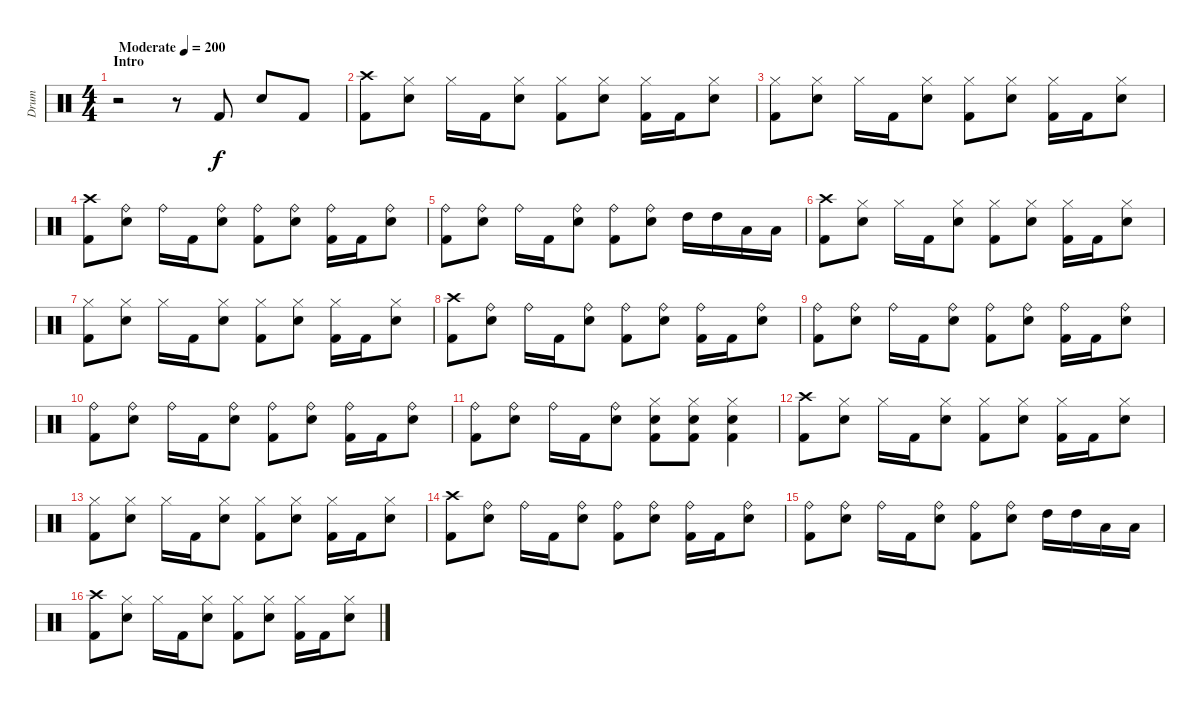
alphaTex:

\track ("Drum" "Drum") {instrument percussion}
\staff {score}
\articulation defaults
\ts (4 4)
\section ("" "Intro")
\tempo (200 "Moderate")
\clef neutral
\ks c
r.2{dy f} r.8 "Kick (hit) 2".8 "Snare (hit) 2".8 "Kick (hit) 2".8 |
("Crash high (hit)" "Kick (hit) 2").8 ("Hi-Hat (closed)" "Snare (hit) 2").8 "Hi-Hat (closed)".16 "Kick (hit) 2".16 ("Hi-Hat (closed)" "Snare (hit) 2").8 ("Hi-Hat (closed)" "Kick (hit) 2").8 ("Hi-Hat (closed)" "Snare (hit) 2").8 ("Hi-Hat (closed)" "Kick (hit) 2").16 "Kick (hit) 2".16 ("Hi-Hat (closed)" "Snare (hit) 2").8 |
("Hi-Hat (closed)" "Kick (hit) 2").8 ("Hi-Hat (closed)" "Snare (hit) 2").8 "Hi-Hat (closed)".16 "Kick (hit) 2".16 ("Hi-Hat (closed)" "Snare (hit) 2").8 ("Hi-Hat (closed)" "Kick (hit) 2").8 ("Hi-Hat (closed)" "Snare (hit) 2").8 ("Hi-Hat (closed)" "Kick (hit) 2").16 "Kick (hit) 2".16 ("Hi-Hat (closed)" "Snare (hit) 2").8 |
("Crash high (hit)" "Kick (hit) 2").8 ("Ride (bell)" "Snare (hit) 2").8 "Ride (bell)".16 "Kick (hit) 2".16 ("Ride (bell)" "Snare (hit) 2").8 ("Ride (bell)" "Kick (hit) 2").8 ("Ride (bell)" "Snare (hit) 2").8 ("Ride (bell)" "Kick (hit) 2").16 "Kick (hit) 2".16 ("Ride (bell)" "Snare (hit) 2").8 |
("Ride (bell)" "Kick (hit) 2").8 ("Ride (bell)" "Snare (hit) 2").8 "Ride (bell)".16 "Kick (hit) 2".16 ("Ride (bell)" "Snare (hit) 2").8 ("Ride (bell)" "Kick (hit) 2").8 ("Ride (bell)" "Snare (hit) 2").8 "High Tom (hit)".16 "High Tom (hit)".16 "Low Tom (hit)".16 "Low Tom (hit)".16 |
("Crash high (hit)" "Kick (hit) 2").8 ("Hi-Hat (closed)" "Snare (hit) 2").8 "Hi-Hat (closed)".16 "Kick (hit) 2".16 ("Hi-Hat (closed)" "Snare (hit) 2").8 ("Hi-Hat (closed)" "Kick (hit) 2").8 ("Hi-Hat (closed)" "Snare (hit) 2").8 ("Hi-Hat (closed)" "Kick (hit) 2").16 "Kick (hit) 2".16 ("Hi-Hat (closed)" "Snare (hit) 2").8 |
("Hi-Hat (closed)" "Kick (hit) 2").8 ("Hi-Hat (closed)" "Snare (hit) 2").8 "Hi-Hat (closed)".16 "Kick (hit) 2".16 ("Hi-Hat (closed)" "Snare (hit) 2").8 ("Hi-Hat (closed)" "Kick (hit) 2").8 ("Hi-Hat (closed)" "Snare (hit) 2").8 ("Hi-Hat (closed)" "Kick (hit) 2").16 "Kick (hit) 2".16 ("Hi-Hat (closed)" "Snare (hit) 2").8 |
("Crash high (hit)" "Kick (hit) 2").8 ("Ride (bell)" "Snare (hit) 2").8 "Ride (bell)".16 "Kick (hit) 2".16 ("Ride (bell)" "Snare (hit) 2").8 ("Ride (bell)" "Kick (hit) 2").8 ("Ride (bell)" "Snare (hit) 2").8 ("Ride (bell)" "Kick (hit) 2").16 "Kick (hit) 2".16 ("Ride (bell)" "Snare (hit) 2").8 |
("Ride (bell)" "Kick (hit) 2").8 ("Ride (bell)" "Snare (hit) 2").8 "Ride (bell)".16 "Kick (hit) 2".16 ("Ride (bell)" "Snare (hit) 2").8 ("Ride (bell)" "Kick (hit) 2").8 ("Ride (bell)" "Snare (hit) 2").8 ("Ride (bell)" "Kick (hit) 2").16 "Kick (hit) 2".16 ("Ride (bell)" "Snare (hit) 2").8 |
("Ride (bell)" "Kick (hit) 2").8 ("Ride (bell)" "Snare (hit) 2").8 "Ride (bell)".16 "Kick (hit) 2".16 ("Ride (bell)" "Snare (hit) 2").8 ("Ride (bell)" "Kick (hit) 2").8 ("Ride (bell)" "Snare (hit) 2").8 ("Ride (bell)" "Kick (hit) 2").16 "Kick (hit) 2".16 ("Ride (bell)" "Snare (hit) 2").8 |
("Ride (bell)" "Kick (hit) 2").8 ("Ride (bell)" "Snare (hit) 2").8 "Ride (bell)".16 "Kick (hit) 2".16 ("Ride (bell)" "Snare (hit) 2").8 ("Hi-Hat (closed)" "Snare (hit) 2" "Kick (hit) 2").8 ("Hi-Hat (closed)" "Snare (hit) 2" "Kick (hit) 2").8 ("Hi-Hat (closed)" "Snare (hit) 2" "Kick (hit) 2").4 |
("Crash high (hit)" "Kick (hit) 2").8 ("Hi-Hat (closed)" "Snare (hit) 2").8 "Hi-Hat (closed)".16 "Kick (hit) 2".16 ("Hi-Hat (closed)" "Snare (hit) 2").8 ("Hi-Hat (closed)" "Kick (hit) 2").8 ("Hi-Hat (closed)" "Snare (hit) 2").8 ("Hi-Hat (closed)" "Kick (hit) 2").16 "Kick (hit) 2".16 ("Hi-Hat (closed)" "Snare (hit) 2").8 |
("Hi-Hat (closed)" "Kick (hit) 2").8 ("Hi-Hat (closed)" "Snare (hit) 2").8 "Hi-Hat (closed)".16 "Kick (hit) 2".16 ("Hi-Hat (closed)" "Snare (hit) 2").8 ("Hi-Hat (closed)" "Kick (hit) 2").8 ("Hi-Hat (closed)" "Snare (hit) 2").8 ("Hi-Hat (closed)" "Kick (hit) 2").16 "Kick (hit) 2".16 ("Hi-Hat (closed)" "Snare (hit) 2").8 |
("Crash high (hit)" "Kick (hit) 2").8 ("Ride (bell)" "Snare (hit) 2").8 "Ride (bell)".16 "Kick (hit) 2".16 ("Ride (bell)" "Snare (hit) 2").8 ("Ride (bell)" "Kick (hit) 2").8 ("Ride (bell)" "Snare (hit) 2").8 ("Ride (bell)" "Kick (hit) 2").16 "Kick (hit) 2".16 ("Ride (bell)" "Snare (hit) 2").8 |
("Ride (bell)" "Kick (hit) 2").8 ("Ride (bell)" "Snare (hit) 2").8 "Ride (bell)".16 "Kick (hit) 2".16 ("Ride (bell)" "Snare (hit) 2").8 ("Ride (bell)" "Kick (hit) 2").8 ("Ride (bell)" "Snare (hit) 2").8 "High Tom (hit)".16 "High Tom (hit)".16 "Low Tom (hit)".16 "Low Tom (hit)".16 |
("Crash high (hit)" "Kick (hit) 2").8 ("Hi-Hat (closed)" "Snare (hit) 2").8 "Hi-Hat (closed)".16 "Kick (hit) 2".16 ("Hi-Hat (closed)" "Snare (hit) 2").8 ("Hi-Hat (closed)" "Kick (hit) 2").8 ("Hi-Hat (closed)" "Snare (hit) 2").8 ("Hi-Hat (closed)" "Kick (hit) 2").16 "Kick (hit) 2".16 ("Hi-Hat (closed)" "Snare (hit) 2").8
